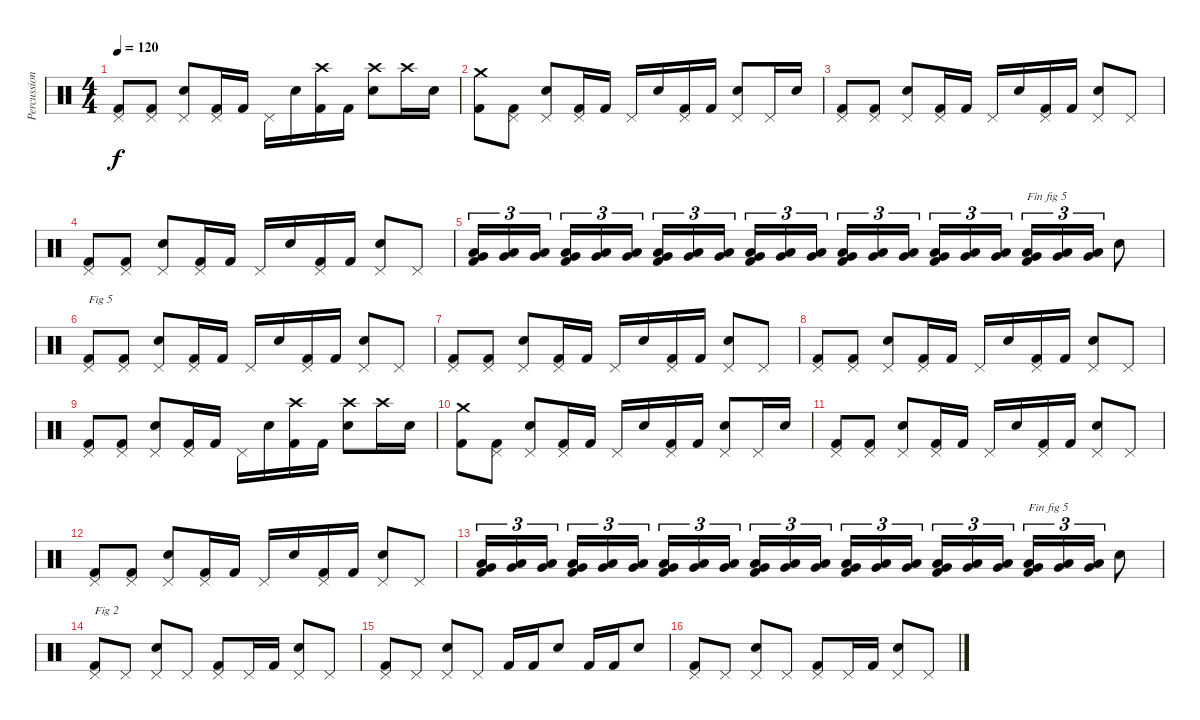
\track ("Percussions" "Percussion") {instrument percussion}
\staff {score}
\articulation defaults
\ts (4 4)
\tempo 120
\clef neutral
\ks c
("Kick (hit) 2" "Pedal Hi-Hat (hit)").8{dy f} ("Kick (hit) 2" "Pedal Hi-Hat (hit)").8 ("Electric Snare (hit)" "Pedal Hi-Hat (hit)").8 ("Kick (hit) 2" "Pedal Hi-Hat (hit)").16 "Kick (hit) 2".16 "Pedal Hi-Hat (hit)".16 "Electric Snare (hit)".16 ("Kick (hit) 2" "Crash high (hit)").16 "Kick (hit) 2".16 ("Electric Snare (hit)" "Crash high (hit)").8 "Crash high (hit)".16 "Electric Snare (hit)".16 |
("Kick (hit) 2" "Crash medium (hit)").8 ("Kick (hit) 2" "Pedal Hi-Hat (hit)").8 ("Electric Snare (hit)" "Pedal Hi-Hat (hit)").8 ("Kick (hit) 2" "Pedal Hi-Hat (hit)").16 "Kick (hit) 2".16 "Pedal Hi-Hat (hit)".16 "Electric Snare (hit)".16 ("Kick (hit) 2" "Pedal Hi-Hat (hit)").16 "Kick (hit) 2".16 ("Electric Snare (hit)" "Pedal Hi-Hat (hit)").8 "Pedal Hi-Hat (hit)".16 "Electric Snare (hit)".16 |
("Kick (hit) 2" "Pedal Hi-Hat (hit)").8 ("Kick (hit) 2" "Pedal Hi-Hat (hit)").8 ("Electric Snare (hit)" "Pedal Hi-Hat (hit)").8 ("Kick (hit) 2" "Pedal Hi-Hat (hit)").16 "Kick (hit) 2".16 "Pedal Hi-Hat (hit)".16 "Electric Snare (hit)".16 ("Kick (hit) 2" "Pedal Hi-Hat (hit)").16 "Kick (hit) 2".16 ("Electric Snare (hit)" "Pedal Hi-Hat (hit)").8 "Pedal Hi-Hat (hit)".8 |
("Kick (hit) 2" "Pedal Hi-Hat (hit)").8 ("Kick (hit) 2" "Pedal Hi-Hat (hit)").8 ("Electric Snare (hit)" "Pedal Hi-Hat (hit)").8 ("Kick (hit) 2" "Pedal Hi-Hat (hit)").16 "Kick (hit) 2".16 "Pedal Hi-Hat (hit)".16 "Electric Snare (hit)".16 ("Kick (hit) 2" "Pedal Hi-Hat (hit)").16 "Kick (hit) 2".16 ("Electric Snare (hit)" "Pedal Hi-Hat (hit)").8 "Pedal Hi-Hat (hit)".8 |
("Kick (hit) 2" "Very Low Tom (hit)" "Low Floor Tom (hit)").16{tu (3 2)} ("Very Low Tom (hit)" "Low Floor Tom (hit)").16{tu (3 2)} ("Very Low Tom (hit)" "Low Floor Tom (hit)").16{tu (3 2)} ("Kick (hit) 2" "Very Low Tom (hit)" "Low Floor Tom (hit)").16{tu (3 2)} ("Very Low Tom (hit)" "Low Floor Tom (hit)").16{tu (3 2)} ("Very Low Tom (hit)" "Low Floor Tom (hit)").16{tu (3 2)} ("Kick (hit) 2" "Very Low Tom (hit)" "Low Floor Tom (hit)").16{tu (3 2)} ("Very Low Tom (hit)" "Low Floor Tom (hit)").16{tu (3 2)} ("Very Low Tom (hit)" "Low Floor Tom (hit)").16{tu (3 2)} ("Kick (hit) 2" "Very Low Tom (hit)" "Low Floor Tom (hit)").16{tu (3 2)} ("Very Low Tom (hit)" "Low Floor Tom (hit)").16{tu (3 2)} ("Very Low Tom (hit)" "Low Floor Tom (hit)").16{tu (3 2)} ("Kick (hit) 2" "Very Low Tom (hit)" "Low Floor Tom (hit)").16{tu (3 2)} ("Very Low Tom (hit)" "Low Floor Tom (hit)").16{tu (3 2)} ("Very Low Tom (hit)" "Low Floor Tom (hit)").16{tu (3 2)} ("Kick (hit) 2" "Very Low Tom (hit)" "Low Floor Tom (hit)").16{tu (3 2)} ("Very Low Tom (hit)" "Low Floor Tom (hit)").16{tu (3 2)} ("Very Low Tom (hit)" "Low Floor Tom (hit)").16{tu (3 2)} ("Kick (hit) 2" "Very Low Tom (hit)" "Low Floor Tom (hit)").16{tu (3 2) txt "Fin fig 5"} ("Very Low Tom (hit)" "Low Floor Tom (hit)").16{tu (3 2)} ("Very Low Tom (hit)" "Low Floor Tom (hit)").16{tu (3 2)} "Electric Snare (hit)".8 |
("Kick (hit) 2" "Pedal Hi-Hat (hit)").8{txt "Fig 5"} ("Kick (hit) 2" "Pedal Hi-Hat (hit)").8 ("Electric Snare (hit)" "Pedal Hi-Hat (hit)").8 ("Kick (hit) 2" "Pedal Hi-Hat (hit)").16 "Kick (hit) 2".16 "Pedal Hi-Hat (hit)".16 "Electric Snare (hit)".16 ("Kick (hit) 2" "Pedal Hi-Hat (hit)").16 "Kick (hit) 2".16 ("Electric Snare (hit)" "Pedal Hi-Hat (hit)").8 "Pedal Hi-Hat (hit)".8 |
("Kick (hit) 2" "Pedal Hi-Hat (hit)").8 ("Kick (hit) 2" "Pedal Hi-Hat (hit)").8 ("Electric Snare (hit)" "Pedal Hi-Hat (hit)").8 ("Kick (hit) 2" "Pedal Hi-Hat (hit)").16 "Kick (hit) 2".16 "Pedal Hi-Hat (hit)".16 "Electric Snare (hit)".16 ("Kick (hit) 2" "Pedal Hi-Hat (hit)").16 "Kick (hit) 2".16 ("Electric Snare (hit)" "Pedal Hi-Hat (hit)").8 "Pedal Hi-Hat (hit)".8 |
("Kick (hit) 2" "Pedal Hi-Hat (hit)").8 ("Kick (hit) 2" "Pedal Hi-Hat (hit)").8 ("Electric Snare (hit)" "Pedal Hi-Hat (hit)").8 ("Kick (hit) 2" "Pedal Hi-Hat (hit)").16 "Kick (hit) 2".16 "Pedal Hi-Hat (hit)".16 "Electric Snare (hit)".16 ("Kick (hit) 2" "Pedal Hi-Hat (hit)").16 "Kick (hit) 2".16 ("Electric Snare (hit)" "Pedal Hi-Hat (hit)").8 "Pedal Hi-Hat (hit)".8 |
("Kick (hit) 2" "Pedal Hi-Hat (hit)").8 ("Kick (hit) 2" "Pedal Hi-Hat (hit)").8 ("Electric Snare (hit)" "Pedal Hi-Hat (hit)").8 ("Kick (hit) 2" "Pedal Hi-Hat (hit)").16 "Kick (hit) 2".16 "Pedal Hi-Hat (hit)".16 "Electric Snare (hit)".16 ("Kick (hit) 2" "Crash high (hit)").16 "Kick (hit) 2".16 ("Electric Snare (hit)" "Crash high (hit)").8 "Crash high (hit)".16 "Electric Snare (hit)".16 |
("Kick (hit) 2" "Crash medium (hit)").8 ("Kick (hit) 2" "Pedal Hi-Hat (hit)").8 ("Electric Snare (hit)" "Pedal Hi-Hat (hit)").8 ("Kick (hit) 2" "Pedal Hi-Hat (hit)").16 "Kick (hit) 2".16 "Pedal Hi-Hat (hit)".16 "Electric Snare (hit)".16 ("Kick (hit) 2" "Pedal Hi-Hat (hit)").16 "Kick (hit) 2".16 ("Electric Snare (hit)" "Pedal Hi-Hat (hit)").8 "Pedal Hi-Hat (hit)".16 "Electric Snare (hit)".16 |
("Kick (hit) 2" "Pedal Hi-Hat (hit)").8 ("Kick (hit) 2" "Pedal Hi-Hat (hit)").8 ("Electric Snare (hit)" "Pedal Hi-Hat (hit)").8 ("Kick (hit) 2" "Pedal Hi-Hat (hit)").16 "Kick (hit) 2".16 "Pedal Hi-Hat (hit)".16 "Electric Snare (hit)".16 ("Kick (hit) 2" "Pedal Hi-Hat (hit)").16 "Kick (hit) 2".16 ("Electric Snare (hit)" "Pedal Hi-Hat (hit)").8 "Pedal Hi-Hat (hit)".8 |
("Kick (hit) 2" "Pedal Hi-Hat (hit)").8 ("Kick (hit) 2" "Pedal Hi-Hat (hit)").8 ("Electric Snare (hit)" "Pedal Hi-Hat (hit)").8 ("Kick (hit) 2" "Pedal Hi-Hat (hit)").16 "Kick (hit) 2".16 "Pedal Hi-Hat (hit)".16 "Electric Snare (hit)".16 ("Kick (hit) 2" "Pedal Hi-Hat (hit)").16 "Kick (hit) 2".16 ("Electric Snare (hit)" "Pedal Hi-Hat (hit)").8 "Pedal Hi-Hat (hit)".8 |
("Kick (hit) 2" "Very Low Tom (hit)" "Low Floor Tom (hit)").16{tu (3 2)} ("Very Low Tom (hit)" "Low Floor Tom (hit)").16{tu (3 2)} ("Very Low Tom (hit)" "Low Floor Tom (hit)").16{tu (3 2)} ("Kick (hit) 2" "Very Low Tom (hit)" "Low Floor Tom (hit)").16{tu (3 2)} ("Very Low Tom (hit)" "Low Floor Tom (hit)").16{tu (3 2)} ("Very Low Tom (hit)" "Low Floor Tom (hit)").16{tu (3 2)} ("Kick (hit) 2" "Very Low Tom (hit)" "Low Floor Tom (hit)").16{tu (3 2)} ("Very Low Tom (hit)" "Low Floor Tom (hit)").16{tu (3 2)} ("Very Low Tom (hit)" "Low Floor Tom (hit)").16{tu (3 2)} ("Kick (hit) 2" "Very Low Tom (hit)" "Low Floor Tom (hit)").16{tu (3 2)} ("Very Low Tom (hit)" "Low Floor Tom (hit)").16{tu (3 2)} ("Very Low Tom (hit)" "Low Floor Tom (hit)").16{tu (3 2)} ("Kick (hit) 2" "Very Low Tom (hit)" "Low Floor Tom (hit)").16{tu (3 2)} ("Very Low Tom (hit)" "Low Floor Tom (hit)").16{tu (3 2)} ("Very Low Tom (hit)" "Low Floor Tom (hit)").16{tu (3 2)} ("Kick (hit) 2" "Very Low Tom (hit)" "Low Floor Tom (hit)").16{tu (3 2)} ("Very Low Tom (hit)" "Low Floor Tom (hit)").16{tu (3 2)} ("Very Low Tom (hit)" "Low Floor Tom (hit)").16{tu (3 2)} ("Kick (hit) 2" "Very Low Tom (hit)" "Low Floor Tom (hit)").16{tu (3 2) txt "Fin fig 5"} ("Very Low Tom (hit)" "Low Floor Tom (hit)").16{tu (3 2)} ("Very Low Tom (hit)" "Low Floor Tom (hit)").16{tu (3 2)} "Electric Snare (hit)".8 |
("Kick (hit) 2" "Pedal Hi-Hat (hit)").8{txt "Fig 2"} "Pedal Hi-Hat (hit)".8 ("Electric Snare (hit)" "Pedal Hi-Hat (hit)").8 "Pedal Hi-Hat (hit)".8 ("Kick (hit) 2" "Pedal Hi-Hat (hit)").8 "Pedal Hi-Hat (hit)".16 "Kick (hit) 2".16 ("Electric Snare (hit)" "Pedal Hi-Hat (hit)").8 "Pedal Hi-Hat (hit)".8 |
("Kick (hit) 2" "Pedal Hi-Hat (hit)").8 "Pedal Hi-Hat (hit)".8 ("Electric Snare (hit)" "Pedal Hi-Hat (hit)").8 "Pedal Hi-Hat (hit)".8 "Kick (hit) 2".16 "Kick (hit) 2".16 "Electric Snare (hit)".8 "Kick (hit) 2".16 "Kick (hit) 2".16 "Electric Snare (hit)".8 |
("Kick (hit) 2" "Pedal Hi-Hat (hit)").8 "Pedal Hi-Hat (hit)".8 ("Electric Snare (hit)" "Pedal Hi-Hat (hit)").8 "Pedal Hi-Hat (hit)".8 ("Kick (hit) 2" "Pedal Hi-Hat (hit)").8 "Pedal Hi-Hat (hit)".16 "Kick (hit) 2".16 ("Electric Snare (hit)" "Pedal Hi-Hat (hit)").8 "Pedal Hi-Hat (hit)".8
